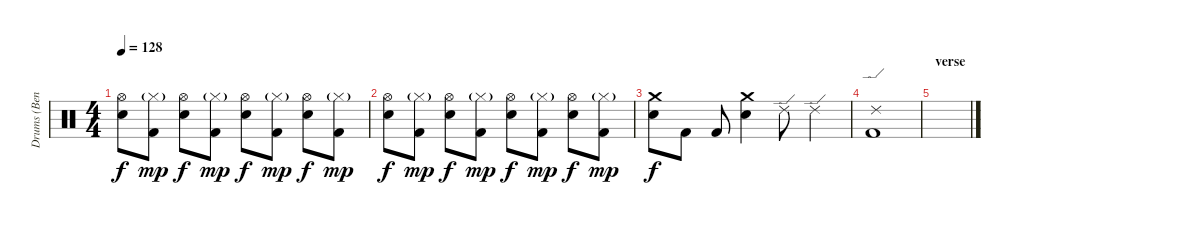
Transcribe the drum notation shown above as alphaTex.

\track ("Drums (Bengerg)" "Drums (Ben") {instrument percussion}
\staff {score}
\articulation defaults
\ts (4 4)
\tempo 128
\clef neutral
\ks c
("Hi-Hat (open)" "Electric Snare (hit)").8{dy f} ("Hi-Hat (closed)"{g} "Kick (hit) 2").8{dy mp} ("Hi-Hat (open)" "Electric Snare (hit)").8{dy f} ("Hi-Hat (closed)"{g} "Kick (hit) 2").8{dy mp} ("Hi-Hat (open)" "Electric Snare (hit)").8{dy f} ("Hi-Hat (closed)"{g} "Kick (hit) 2").8{dy mp} ("Hi-Hat (open)" "Electric Snare (hit)").8{dy f} ("Hi-Hat (closed)"{g} "Kick (hit) 2").8{dy mp} |
("Hi-Hat (open)" "Electric Snare (hit)").8{dy f} ("Hi-Hat (closed)"{g} "Kick (hit) 2").8{dy mp} ("Hi-Hat (open)" "Electric Snare (hit)").8{dy f} ("Hi-Hat (closed)"{g} "Kick (hit) 2").8{dy mp} ("Hi-Hat (open)" "Electric Snare (hit)").8{dy f} ("Hi-Hat (closed)"{g} "Kick (hit) 2").8{dy mp} ("Hi-Hat (open)" "Electric Snare (hit)").8{dy f} ("Hi-Hat (closed)"{g} "Kick (hit) 2").8{dy mp} |
("Crash medium (hit)" "Electric Snare (hit)").8{dy f} "Kick (hit) 2".8 "Kick (hit) 2".8 ("Crash medium (hit)" "Electric Snare (hit)").4 "Ride (edge) 2".8 "Ride (edge) 2".4 |
("Ride (edge) 2" "Kick (hit) 2").1 |
\section ("" "verse")
